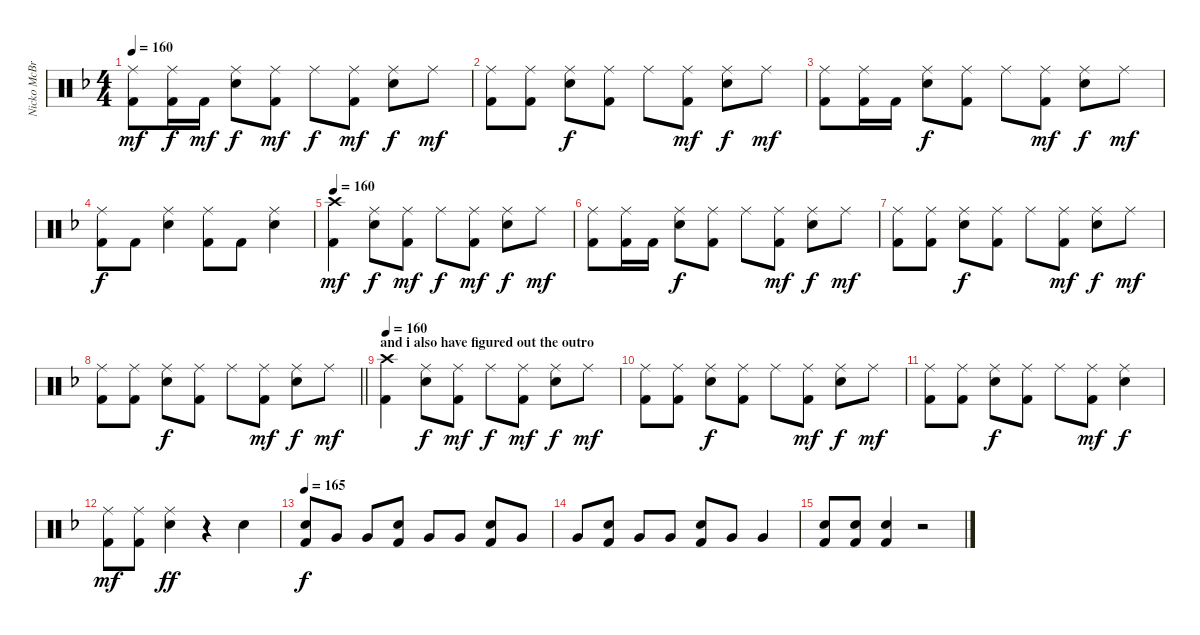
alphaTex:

\track ("Nicko McBrain" "Nicko McBr") {instrument percussion}
\staff {score}
\articulation defaults
\ts (4 4)
\tempo 160
\clef neutral
\ks f
("Ride (middle)" "Kick (hit) 2").8{dy mf} ("Ride (middle)" "Kick (hit) 2").16{dy f} "Kick (hit) 2".16{dy mf} ("Ride (middle)" "Electric Snare (hit)").8{dy f} ("Ride (middle)" "Kick (hit) 2").8{dy mf} "Ride (middle)".8{dy f} ("Ride (middle)" "Kick (hit) 2").8{dy mf} ("Ride (middle)" "Electric Snare (hit)").8{dy f} "Ride (middle)".8{dy mf} |
("Ride (middle)" "Kick (hit) 2").8 ("Ride (middle)" "Kick (hit) 2").8 ("Ride (middle)" "Electric Snare (hit)").8{dy f} ("Ride (middle)" "Kick (hit) 2").8 "Ride (middle)".8 ("Ride (middle)" "Kick (hit) 2").8{dy mf} ("Ride (middle)" "Electric Snare (hit)").8{dy f} "Ride (middle)".8{dy mf} |
("Ride (middle)" "Kick (hit) 2").8 ("Ride (middle)" "Kick (hit) 2").16 "Kick (hit) 2".16 ("Ride (middle)" "Electric Snare (hit)").8{dy f} ("Ride (middle)" "Kick (hit) 2").8 "Ride (middle)".8 ("Ride (middle)" "Kick (hit) 2").8{dy mf} ("Ride (middle)" "Electric Snare (hit)").8{dy f} "Ride (middle)".8{dy mf} |
("Ride (middle)" "Kick (hit) 2").8{dy f} "Kick (hit) 2".8 ("Ride (middle)" "Electric Snare (hit)").4 ("Ride (middle)" "Kick (hit) 2").8 "Kick (hit) 2".8 ("Ride (middle)" "Electric Snare (hit)").4 |
\tempo 160
("Crash high (hit)" "Kick (hit) 2").4{dy mf} ("Ride (middle)" "Electric Snare (hit)").8{dy f} ("Ride (middle)" "Kick (hit) 2").8{dy mf} "Ride (middle)".8{dy f} ("Ride (middle)" "Kick (hit) 2").8{dy mf} ("Ride (middle)" "Electric Snare (hit)").8{dy f} "Ride (middle)".8{dy mf} |
("Ride (middle)" "Kick (hit) 2").8 ("Ride (middle)" "Kick (hit) 2").16 "Kick (hit) 2".16 ("Ride (middle)" "Electric Snare (hit)").8{dy f} ("Ride (middle)" "Kick (hit) 2").8 "Ride (middle)".8 ("Ride (middle)" "Kick (hit) 2").8{dy mf} ("Ride (middle)" "Electric Snare (hit)").8{dy f} "Ride (middle)".8{dy mf} |
("Ride (middle)" "Kick (hit) 2").8 ("Ride (middle)" "Kick (hit) 2").8 ("Ride (middle)" "Electric Snare (hit)").8{dy f} ("Ride (middle)" "Kick (hit) 2").8 "Ride (middle)".8 ("Ride (middle)" "Kick (hit) 2").8{dy mf} ("Ride (middle)" "Electric Snare (hit)").8{dy f} "Ride (middle)".8{dy mf} |
\barLineRight lightlight
("Ride (middle)" "Kick (hit) 2").8 ("Ride (middle)" "Kick (hit) 2").8 ("Ride (middle)" "Electric Snare (hit)").8{dy f} ("Ride (middle)" "Kick (hit) 2").8 "Ride (middle)".8 ("Ride (middle)" "Kick (hit) 2").8{dy mf} ("Ride (middle)" "Electric Snare (hit)").8{dy f} "Ride (middle)".8{dy mf} |
\section ("" "and i also have figured out the outro")
\tempo 160
("Crash high (hit)" "Kick (hit) 2").4 ("Ride (middle)" "Electric Snare (hit)").8{dy f} ("Ride (middle)" "Kick (hit) 2").8{dy mf} "Ride (middle)".8{dy f} ("Ride (middle)" "Kick (hit) 2").8{dy mf} ("Ride (middle)" "Electric Snare (hit)").8{dy f} "Ride (middle)".8{dy mf} |
("Ride (middle)" "Kick (hit) 2").8 ("Ride (middle)" "Kick (hit) 2").8 ("Ride (middle)" "Electric Snare (hit)").8{dy f} ("Ride (middle)" "Kick (hit) 2").8 "Ride (middle)".8 ("Ride (middle)" "Kick (hit) 2").8{dy mf} ("Ride (middle)" "Electric Snare (hit)").8{dy f} "Ride (middle)".8{dy mf} |
("Ride (middle)" "Kick (hit) 2").8 ("Ride (middle)" "Kick (hit) 2").8 ("Ride (middle)" "Electric Snare (hit)").8{dy f} ("Ride (middle)" "Kick (hit) 2").8 "Ride (middle)".8 ("Ride (middle)" "Kick (hit) 2").8{dy mf} ("Ride (middle)" "Electric Snare (hit)").4{dy f} |
("Ride (middle)" "Kick (hit) 2").8{dy mf} ("Ride (middle)" "Kick (hit) 2").8 ("Ride (middle)" "Electric Snare (hit)").4{dy ff} r.4 "Electric Snare (hit)".4 |
\tempo 165
("Electric Snare (hit)" "Kick (hit) 2").8{dy f} "Very Low Tom (hit)".8 "Very Low Tom (hit)".8 ("Electric Snare (hit)" "Kick (hit) 2").8 "Very Low Tom (hit)".8 "Very Low Tom (hit)".8 ("Electric Snare (hit)" "Kick (hit) 2").8 "Very Low Tom (hit)".8 |
"Very Low Tom (hit)".8 ("Electric Snare (hit)" "Kick (hit) 2").8 "Very Low Tom (hit)".8 "Very Low Tom (hit)".8 ("Electric Snare (hit)" "Kick (hit) 2").8 "Very Low Tom (hit)".8 "Very Low Tom (hit)".4 |
("Electric Snare (hit)" "Kick (hit) 2").8 ("Electric Snare (hit)" "Kick (hit) 2").8 ("Electric Snare (hit)" "Kick (hit) 2").4 r.2
